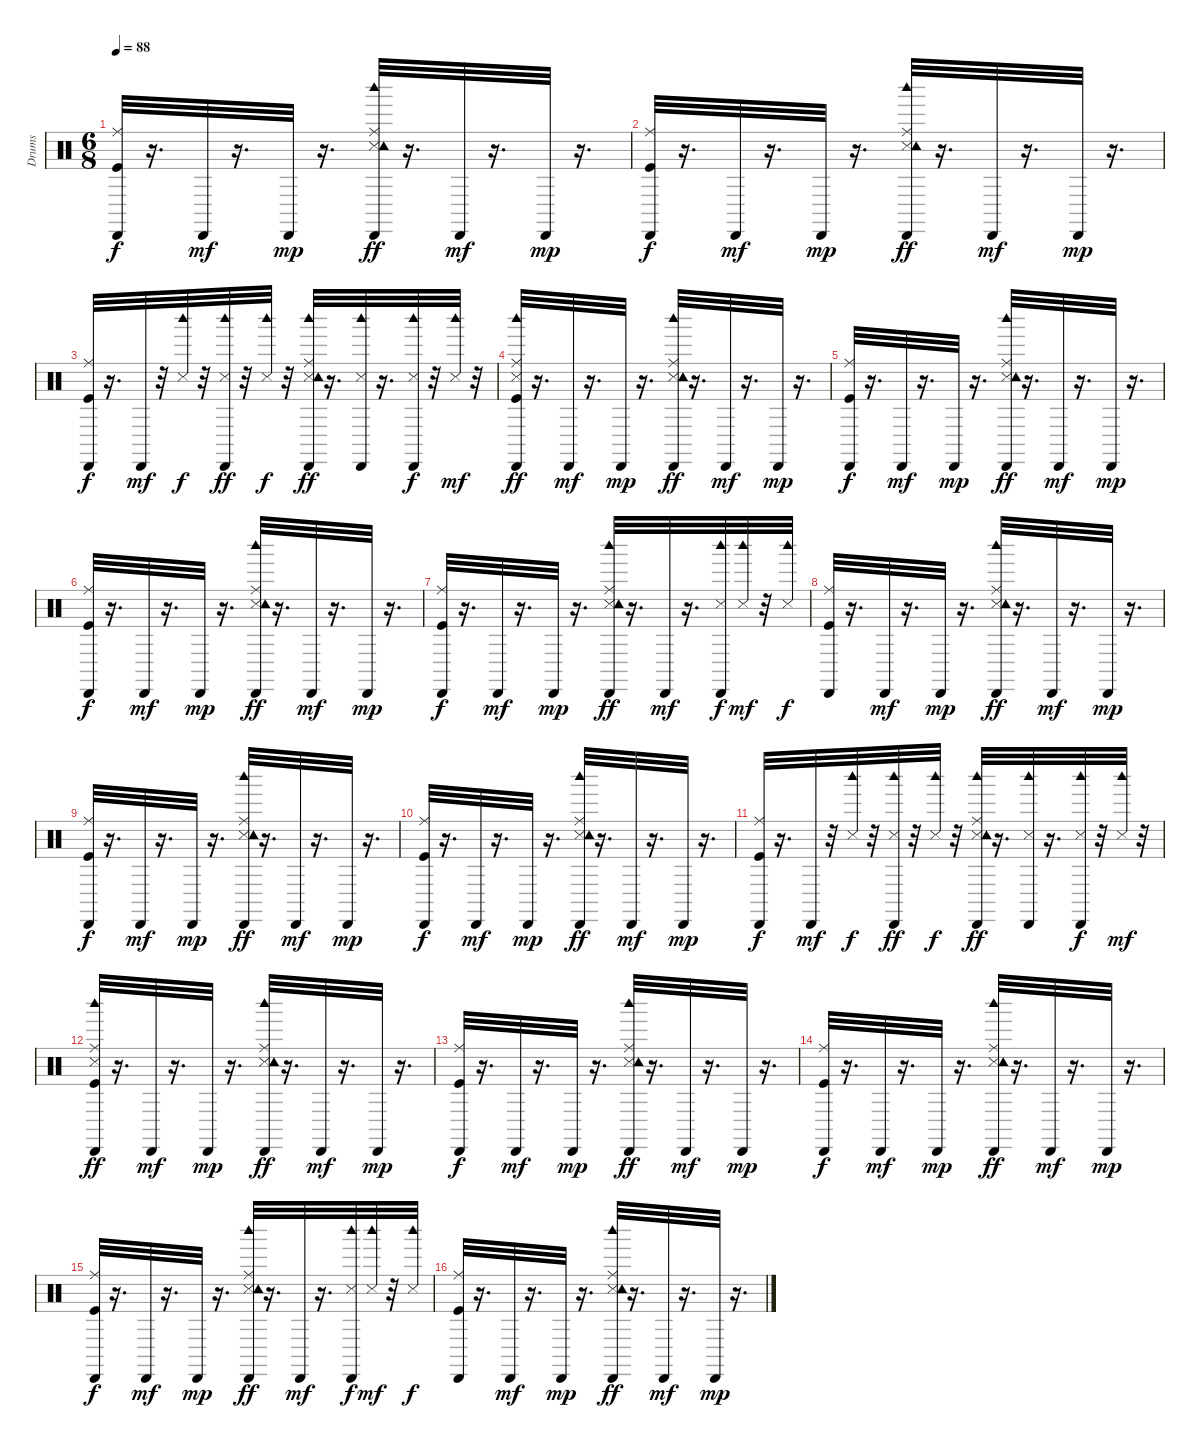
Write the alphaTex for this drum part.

\track ("Drums               " "Drums     ") {instrument percussion}
\staff {score}
\articulation defaults
\ts (6 8)
\tempo 88
\clef neutral
\ks c
("Kick (hit)" "Ride (middle)" "Cabasa (hit)").32{dy f} r.16{d} "Cabasa (hit)".32{dy mf} r.16{d} "Cabasa (hit)".32{dy mp} r.16{d} ("Snare (side stick) 3" "Ride (middle)" "Tambourine (hit)" "Cabasa (hit)" "Woodblock high (hit)").32{dy ff} r.16{d} "Cabasa (hit)".32{dy mf} r.16{d} "Cabasa (hit)".32{dy mp} r.16{d} |
("Kick (hit)" "Ride (middle)" "Cabasa (hit)").32{dy f} r.16{d} "Cabasa (hit)".32{dy mf} r.16{d} "Cabasa (hit)".32{dy mp} r.16{d} ("Snare (side stick) 3" "Ride (middle)" "Tambourine (hit)" "Cabasa (hit)" "Woodblock high (hit)").32{dy ff} r.16{d} "Cabasa (hit)".32{dy mf} r.16{d} "Cabasa (hit)".32{dy mp} r.16{d} |
("Kick (hit)" "Ride (middle)" "Cabasa (hit)").32{dy f} r.16{d} "Cabasa (hit)".32{dy mf} r.32 ("Snare (side stick) 3" "Woodblock high (hit)").32{dy f} r.32 ("Snare (side stick) 3" "Cabasa (hit)" "Woodblock high (hit)").32{dy ff} r.32 ("Snare (side stick) 3" "Woodblock high (hit)").32{dy f} r.32 ("Snare (side stick) 3" "Ride (middle)" "Tambourine (hit)" "Cabasa (hit)" "Woodblock high (hit)").32{dy ff} r.16{d} ("Snare (side stick) 3" "Cabasa (hit)" "Woodblock high (hit)").32 r.16{d} ("Snare (side stick) 3" "Cabasa (hit)" "Woodblock high (hit)").32{dy f} r.32 ("Snare (side stick) 3" "Woodblock high (hit)").32{dy mf} r.32 |
("Kick (hit)" "Snare (side stick) 3" "Ride (middle)" "Cabasa (hit)" "Woodblock high (hit)").32{dy ff} r.16{d} "Cabasa (hit)".32{dy mf} r.16{d} "Cabasa (hit)".32{dy mp} r.16{d} ("Snare (side stick) 3" "Ride (middle)" "Tambourine (hit)" "Cabasa (hit)" "Woodblock high (hit)").32{dy ff} r.16{d} "Cabasa (hit)".32{dy mf} r.16{d} "Cabasa (hit)".32{dy mp} r.16{d} |
("Kick (hit)" "Ride (middle)" "Cabasa (hit)").32{dy f} r.16{d} "Cabasa (hit)".32{dy mf} r.16{d} "Cabasa (hit)".32{dy mp} r.16{d} ("Snare (side stick) 3" "Ride (middle)" "Tambourine (hit)" "Cabasa (hit)" "Woodblock high (hit)").32{dy ff} r.16{d} "Cabasa (hit)".32{dy mf} r.16{d} "Cabasa (hit)".32{dy mp} r.16{d} |
("Kick (hit)" "Ride (middle)" "Cabasa (hit)").32{dy f} r.16{d} "Cabasa (hit)".32{dy mf} r.16{d} "Cabasa (hit)".32{dy mp} r.16{d} ("Snare (side stick) 3" "Ride (middle)" "Tambourine (hit)" "Cabasa (hit)" "Woodblock high (hit)").32{dy ff} r.16{d} "Cabasa (hit)".32{dy mf} r.16{d} "Cabasa (hit)".32{dy mp} r.16{d} |
("Kick (hit)" "Ride (middle)" "Cabasa (hit)").32{dy f} r.16{d} "Cabasa (hit)".32{dy mf} r.16{d} "Cabasa (hit)".32{dy mp} r.16{d} ("Snare (side stick) 3" "Ride (middle)" "Tambourine (hit)" "Cabasa (hit)" "Woodblock high (hit)").32{dy ff} r.16{d} "Cabasa (hit)".32{dy mf} r.16{d} ("Snare (side stick) 3" "Cabasa (hit)" "Woodblock high (hit)").32{dy f} ("Snare (side stick) 3" "Woodblock high (hit)").32{dy mf} r.32 ("Snare (side stick) 3" "Woodblock high (hit)").32{dy f} |
("Kick (hit)" "Ride (middle)" "Cabasa (hit)").32 r.16{d} "Cabasa (hit)".32{dy mf} r.16{d} "Cabasa (hit)".32{dy mp} r.16{d} ("Snare (side stick) 3" "Ride (middle)" "Tambourine (hit)" "Cabasa (hit)" "Woodblock high (hit)").32{dy ff} r.16{d} "Cabasa (hit)".32{dy mf} r.16{d} "Cabasa (hit)".32{dy mp} r.16{d} |
("Kick (hit)" "Ride (middle)" "Cabasa (hit)").32{dy f} r.16{d} "Cabasa (hit)".32{dy mf} r.16{d} "Cabasa (hit)".32{dy mp} r.16{d} ("Snare (side stick) 3" "Ride (middle)" "Tambourine (hit)" "Cabasa (hit)" "Woodblock high (hit)").32{dy ff} r.16{d} "Cabasa (hit)".32{dy mf} r.16{d} "Cabasa (hit)".32{dy mp} r.16{d} |
("Kick (hit)" "Ride (middle)" "Cabasa (hit)").32{dy f} r.16{d} "Cabasa (hit)".32{dy mf} r.16{d} "Cabasa (hit)".32{dy mp} r.16{d} ("Snare (side stick) 3" "Ride (middle)" "Tambourine (hit)" "Cabasa (hit)" "Woodblock high (hit)").32{dy ff} r.16{d} "Cabasa (hit)".32{dy mf} r.16{d} "Cabasa (hit)".32{dy mp} r.16{d} |
("Kick (hit)" "Ride (middle)" "Cabasa (hit)").32{dy f} r.16{d} "Cabasa (hit)".32{dy mf} r.32 ("Snare (side stick) 3" "Woodblock high (hit)").32{dy f} r.32 ("Snare (side stick) 3" "Cabasa (hit)" "Woodblock high (hit)").32{dy ff} r.32 ("Snare (side stick) 3" "Woodblock high (hit)").32{dy f} r.32 ("Snare (side stick) 3" "Ride (middle)" "Tambourine (hit)" "Cabasa (hit)" "Woodblock high (hit)").32{dy ff} r.16{d} ("Snare (side stick) 3" "Cabasa (hit)" "Woodblock high (hit)").32 r.16{d} ("Snare (side stick) 3" "Cabasa (hit)" "Woodblock high (hit)").32{dy f} r.32 ("Snare (side stick) 3" "Woodblock high (hit)").32{dy mf} r.32 |
("Kick (hit)" "Snare (side stick) 3" "Ride (middle)" "Cabasa (hit)" "Woodblock high (hit)").32{dy ff} r.16{d} "Cabasa (hit)".32{dy mf} r.16{d} "Cabasa (hit)".32{dy mp} r.16{d} ("Snare (side stick) 3" "Ride (middle)" "Tambourine (hit)" "Cabasa (hit)" "Woodblock high (hit)").32{dy ff} r.16{d} "Cabasa (hit)".32{dy mf} r.16{d} "Cabasa (hit)".32{dy mp} r.16{d} |
("Kick (hit)" "Ride (middle)" "Cabasa (hit)").32{dy f} r.16{d} "Cabasa (hit)".32{dy mf} r.16{d} "Cabasa (hit)".32{dy mp} r.16{d} ("Snare (side stick) 3" "Ride (middle)" "Tambourine (hit)" "Cabasa (hit)" "Woodblock high (hit)").32{dy ff} r.16{d} "Cabasa (hit)".32{dy mf} r.16{d} "Cabasa (hit)".32{dy mp} r.16{d} |
("Kick (hit)" "Ride (middle)" "Cabasa (hit)").32{dy f} r.16{d} "Cabasa (hit)".32{dy mf} r.16{d} "Cabasa (hit)".32{dy mp} r.16{d} ("Snare (side stick) 3" "Ride (middle)" "Tambourine (hit)" "Cabasa (hit)" "Woodblock high (hit)").32{dy ff} r.16{d} "Cabasa (hit)".32{dy mf} r.16{d} "Cabasa (hit)".32{dy mp} r.16{d} |
("Kick (hit)" "Ride (middle)" "Cabasa (hit)").32{dy f} r.16{d} "Cabasa (hit)".32{dy mf} r.16{d} "Cabasa (hit)".32{dy mp} r.16{d} ("Snare (side stick) 3" "Ride (middle)" "Tambourine (hit)" "Cabasa (hit)" "Woodblock high (hit)").32{dy ff} r.16{d} "Cabasa (hit)".32{dy mf} r.16{d} ("Snare (side stick) 3" "Cabasa (hit)" "Woodblock high (hit)").32{dy f} ("Snare (side stick) 3" "Woodblock high (hit)").32{dy mf} r.32 ("Snare (side stick) 3" "Woodblock high (hit)").32{dy f} |
("Kick (hit)" "Ride (middle)" "Cabasa (hit)").32 r.16{d} "Cabasa (hit)".32{dy mf} r.16{d} "Cabasa (hit)".32{dy mp} r.16{d} ("Snare (side stick) 3" "Ride (middle)" "Tambourine (hit)" "Cabasa (hit)" "Woodblock high (hit)").32{dy ff} r.16{d} "Cabasa (hit)".32{dy mf} r.16{d} "Cabasa (hit)".32{dy mp} r.16{d}
